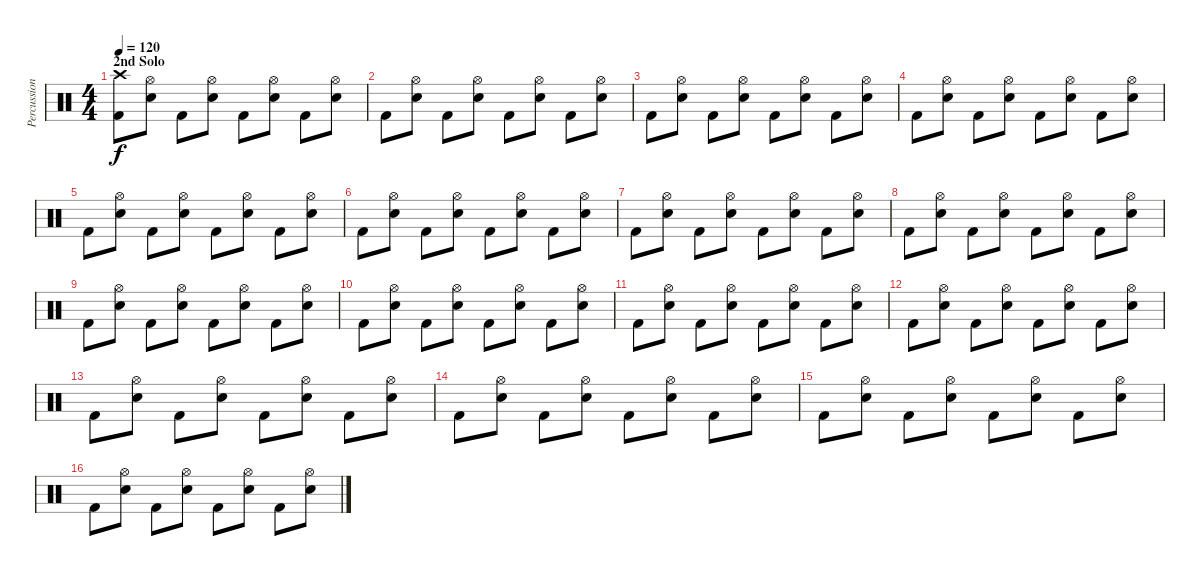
\track ("Percussioni" "Percussion") {instrument percussion}
\staff {score}
\articulation defaults
\ts (4 4)
\section ("" "2nd Solo")
\tempo 120
\clef neutral
\ks c
("Crash high (hit)" "Kick (hit) 2").8{dy f} ("Hi-Hat (open)" "Electric Snare (hit)").8 "Kick (hit) 2".8 ("Hi-Hat (open)" "Electric Snare (hit)").8 "Kick (hit) 2".8 ("Hi-Hat (open)" "Electric Snare (hit)").8 "Kick (hit) 2".8 ("Hi-Hat (open)" "Electric Snare (hit)").8 |
"Kick (hit) 2".8 ("Hi-Hat (open)" "Electric Snare (hit)").8 "Kick (hit) 2".8 ("Hi-Hat (open)" "Electric Snare (hit)").8 "Kick (hit) 2".8 ("Hi-Hat (open)" "Electric Snare (hit)").8 "Kick (hit) 2".8 ("Hi-Hat (open)" "Electric Snare (hit)").8 |
"Kick (hit) 2".8 ("Hi-Hat (open)" "Electric Snare (hit)").8 "Kick (hit) 2".8 ("Hi-Hat (open)" "Electric Snare (hit)").8 "Kick (hit) 2".8 ("Hi-Hat (open)" "Electric Snare (hit)").8 "Kick (hit) 2".8 ("Hi-Hat (open)" "Electric Snare (hit)").8 |
"Kick (hit) 2".8 ("Hi-Hat (open)" "Electric Snare (hit)").8 "Kick (hit) 2".8 ("Hi-Hat (open)" "Electric Snare (hit)").8 "Kick (hit) 2".8 ("Hi-Hat (open)" "Electric Snare (hit)").8 "Kick (hit) 2".8 ("Hi-Hat (open)" "Electric Snare (hit)").8 |
"Kick (hit) 2".8 ("Hi-Hat (open)" "Electric Snare (hit)").8 "Kick (hit) 2".8 ("Hi-Hat (open)" "Electric Snare (hit)").8 "Kick (hit) 2".8 ("Hi-Hat (open)" "Electric Snare (hit)").8 "Kick (hit) 2".8 ("Hi-Hat (open)" "Electric Snare (hit)").8 |
"Kick (hit) 2".8 ("Hi-Hat (open)" "Electric Snare (hit)").8 "Kick (hit) 2".8 ("Hi-Hat (open)" "Electric Snare (hit)").8 "Kick (hit) 2".8 ("Hi-Hat (open)" "Electric Snare (hit)").8 "Kick (hit) 2".8 ("Hi-Hat (open)" "Electric Snare (hit)").8 |
"Kick (hit) 2".8 ("Hi-Hat (open)" "Electric Snare (hit)").8 "Kick (hit) 2".8 ("Hi-Hat (open)" "Electric Snare (hit)").8 "Kick (hit) 2".8 ("Hi-Hat (open)" "Electric Snare (hit)").8 "Kick (hit) 2".8 ("Hi-Hat (open)" "Electric Snare (hit)").8 |
"Kick (hit) 2".8 ("Hi-Hat (open)" "Electric Snare (hit)").8 "Kick (hit) 2".8 ("Hi-Hat (open)" "Electric Snare (hit)").8 "Kick (hit) 2".8 ("Hi-Hat (open)" "Electric Snare (hit)").8 "Kick (hit) 2".8 ("Hi-Hat (open)" "Electric Snare (hit)").8 |
"Kick (hit) 2".8 ("Hi-Hat (open)" "Electric Snare (hit)").8 "Kick (hit) 2".8 ("Hi-Hat (open)" "Electric Snare (hit)").8 "Kick (hit) 2".8 ("Hi-Hat (open)" "Electric Snare (hit)").8 "Kick (hit) 2".8 ("Hi-Hat (open)" "Electric Snare (hit)").8 |
"Kick (hit) 2".8 ("Hi-Hat (open)" "Electric Snare (hit)").8 "Kick (hit) 2".8 ("Hi-Hat (open)" "Electric Snare (hit)").8 "Kick (hit) 2".8 ("Hi-Hat (open)" "Electric Snare (hit)").8 "Kick (hit) 2".8 ("Hi-Hat (open)" "Electric Snare (hit)").8 |
"Kick (hit) 2".8 ("Hi-Hat (open)" "Electric Snare (hit)").8 "Kick (hit) 2".8 ("Hi-Hat (open)" "Electric Snare (hit)").8 "Kick (hit) 2".8 ("Hi-Hat (open)" "Electric Snare (hit)").8 "Kick (hit) 2".8 ("Hi-Hat (open)" "Electric Snare (hit)").8 |
"Kick (hit) 2".8 ("Hi-Hat (open)" "Electric Snare (hit)").8 "Kick (hit) 2".8 ("Hi-Hat (open)" "Electric Snare (hit)").8 "Kick (hit) 2".8 ("Hi-Hat (open)" "Electric Snare (hit)").8 "Kick (hit) 2".8 ("Hi-Hat (open)" "Electric Snare (hit)").8 |
"Kick (hit) 2".8 ("Hi-Hat (open)" "Electric Snare (hit)").8 "Kick (hit) 2".8 ("Hi-Hat (open)" "Electric Snare (hit)").8 "Kick (hit) 2".8 ("Hi-Hat (open)" "Electric Snare (hit)").8 "Kick (hit) 2".8 ("Hi-Hat (open)" "Electric Snare (hit)").8 |
"Kick (hit) 2".8 ("Hi-Hat (open)" "Electric Snare (hit)").8 "Kick (hit) 2".8 ("Hi-Hat (open)" "Electric Snare (hit)").8 "Kick (hit) 2".8 ("Hi-Hat (open)" "Electric Snare (hit)").8 "Kick (hit) 2".8 ("Hi-Hat (open)" "Electric Snare (hit)").8 |
"Kick (hit) 2".8 ("Hi-Hat (open)" "Electric Snare (hit)").8 "Kick (hit) 2".8 ("Hi-Hat (open)" "Electric Snare (hit)").8 "Kick (hit) 2".8 ("Hi-Hat (open)" "Electric Snare (hit)").8 "Kick (hit) 2".8 ("Hi-Hat (open)" "Electric Snare (hit)").8 |
"Kick (hit) 2".8 ("Hi-Hat (open)" "Electric Snare (hit)").8 "Kick (hit) 2".8 ("Hi-Hat (open)" "Electric Snare (hit)").8 "Kick (hit) 2".8 ("Hi-Hat (open)" "Electric Snare (hit)").8 "Kick (hit) 2".8 ("Hi-Hat (open)" "Electric Snare (hit)").8
